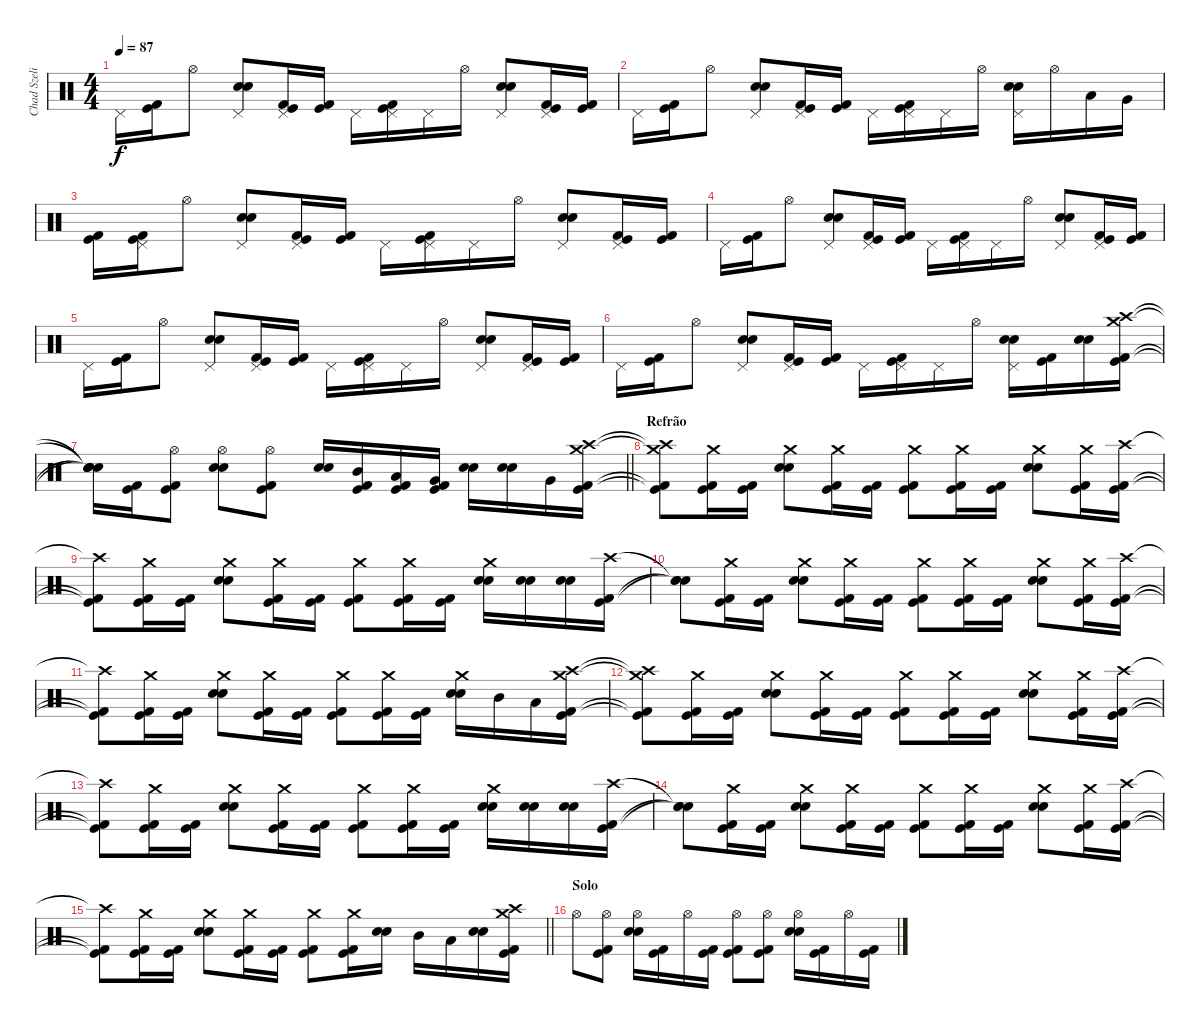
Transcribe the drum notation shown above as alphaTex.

\track ("Chad Szeliga" "Chad Szeli") {instrument percussion}
\staff {score}
\articulation defaults
\ts (4 4)
\tempo 87
\clef neutral
\ks c "Pedal Hi-Hat (hit)".16{dy f}
("Kick (hit) 2" "Kick (hit)").16 "Hi-Hat (open)".8 ("Snare (hit) 2" "Snare (hit) 2" "Pedal Hi-Hat (hit)").8 ("Kick (hit) 2" "Kick (hit)" "Pedal Hi-Hat (hit)").16 ("Kick (hit) 2" "Kick (hit)").16 "Pedal Hi-Hat (hit)".16 ("Kick (hit) 2" "Kick (hit)" "Pedal Hi-Hat (hit)").16 "Pedal Hi-Hat (hit)".16 "Hi-Hat (open)".16 ("Snare (hit) 2" "Snare (hit) 2" "Pedal Hi-Hat (hit)").8 ("Kick (hit) 2" "Kick (hit)" "Pedal Hi-Hat (hit)").16 ("Kick (hit) 2" "Kick (hit)").16 |
"Pedal Hi-Hat (hit)".16 ("Kick (hit) 2" "Kick (hit)").16 "Hi-Hat (open)".8 ("Snare (hit) 2" "Snare (hit) 2" "Pedal Hi-Hat (hit)").8 ("Kick (hit) 2" "Kick (hit)" "Pedal Hi-Hat (hit)").16 ("Kick (hit) 2" "Kick (hit)").16 "Pedal Hi-Hat (hit)".16 ("Kick (hit) 2" "Kick (hit)" "Pedal Hi-Hat (hit)").16 "Pedal Hi-Hat (hit)".16 "Hi-Hat (open)".16 ("Snare (hit) 2" "Snare (hit) 2" "Pedal Hi-Hat (hit)").16 "Hi-Hat (open)".16 "Low Tom (hit)".16 "Very Low Tom (hit)".16 |
("Kick (hit) 2" "Kick (hit)").16 ("Kick (hit) 2" "Kick (hit)" "Pedal Hi-Hat (hit)").16 "Hi-Hat (open)".8 ("Snare (hit) 2" "Snare (hit) 2" "Pedal Hi-Hat (hit)").8 ("Kick (hit) 2" "Kick (hit)" "Pedal Hi-Hat (hit)").16 ("Kick (hit) 2" "Kick (hit)").16 "Pedal Hi-Hat (hit)".16 ("Kick (hit) 2" "Kick (hit)" "Pedal Hi-Hat (hit)").16 "Pedal Hi-Hat (hit)".16 "Hi-Hat (open)".16 ("Snare (hit) 2" "Snare (hit) 2" "Pedal Hi-Hat (hit)").8 ("Kick (hit) 2" "Kick (hit)" "Pedal Hi-Hat (hit)").16 ("Kick (hit) 2" "Kick (hit)").16 |
"Pedal Hi-Hat (hit)".16 ("Kick (hit) 2" "Kick (hit)").16 "Hi-Hat (open)".8 ("Snare (hit) 2" "Snare (hit) 2" "Pedal Hi-Hat (hit)").8 ("Kick (hit) 2" "Kick (hit)" "Pedal Hi-Hat (hit)").16 ("Kick (hit) 2" "Kick (hit)").16 "Pedal Hi-Hat (hit)".16 ("Kick (hit) 2" "Kick (hit)" "Pedal Hi-Hat (hit)").16 "Pedal Hi-Hat (hit)".16 "Hi-Hat (open)".16 ("Snare (hit) 2" "Snare (hit) 2" "Pedal Hi-Hat (hit)").8 ("Kick (hit) 2" "Kick (hit)" "Pedal Hi-Hat (hit)").16 ("Kick (hit) 2" "Kick (hit)").16 |
"Pedal Hi-Hat (hit)".16 ("Kick (hit) 2" "Kick (hit)").16 "Hi-Hat (open)".8 ("Snare (hit) 2" "Snare (hit) 2" "Pedal Hi-Hat (hit)").8 ("Kick (hit) 2" "Kick (hit)" "Pedal Hi-Hat (hit)").16 ("Kick (hit) 2" "Kick (hit)").16 "Pedal Hi-Hat (hit)".16 ("Kick (hit) 2" "Kick (hit)" "Pedal Hi-Hat (hit)").16 "Pedal Hi-Hat (hit)".16 "Hi-Hat (open)".16 ("Snare (hit) 2" "Snare (hit) 2" "Pedal Hi-Hat (hit)").8 ("Kick (hit) 2" "Kick (hit)" "Pedal Hi-Hat (hit)").16 ("Kick (hit) 2" "Kick (hit)").16 |
"Pedal Hi-Hat (hit)".16 ("Kick (hit) 2" "Kick (hit)").16 "Hi-Hat (open)".8 ("Snare (hit) 2" "Snare (hit) 2" "Pedal Hi-Hat (hit)").8 ("Kick (hit) 2" "Kick (hit)" "Pedal Hi-Hat (hit)").16 ("Kick (hit) 2" "Kick (hit)").16 "Pedal Hi-Hat (hit)".16 ("Kick (hit) 2" "Kick (hit)" "Pedal Hi-Hat (hit)").16 "Pedal Hi-Hat (hit)".16 "Hi-Hat (open)".16 ("Snare (hit) 2" "Snare (hit) 2" "Pedal Hi-Hat (hit)").16 ("Kick (hit) 2" "Kick (hit)").16 ("Snare (hit) 2" "Snare (hit) 2").16 ("Crash high (hit)" "Kick (hit) 2" "Kick (hit)" "Crash medium (hit)").16 |
\barLineRight lightlight
("Snare (hit)"{t} "Snare (hit)"{t} "Snare (hit)"{t} "Snare (hit)"{t}).16 ("Kick (hit) 2" "Kick (hit)").16 ("Kick (hit) 2" "Kick (hit)" "Hi-Hat (open)").8 ("Snare (hit) 2" "Snare (hit) 2" "Hi-Hat (open)").8 ("Kick (hit) 2" "Kick (hit)" "Hi-Hat (open)").8 ("Snare (hit) 2" "Snare (hit) 2").16 ("Kick (hit) 2" "Kick (hit)" "Mid Tom (hit)").16 ("Kick (hit) 2" "Kick (hit)" "Low Tom (hit)").16 ("Kick (hit) 2" "Kick (hit)" "Very Low Tom (hit)").16 ("Snare (hit) 2" "Snare (hit) 2").16 ("Snare (hit) 2" "Snare (hit) 2").16 "Very Low Tom (hit)".16 ("Crash high (hit)" "Kick (hit) 2" "Kick (hit)" "Crash medium (hit)").16 |
\section ("" "Refrão")
("Crash high (hit)"{t} "Kick (hit) 2"{t} "Kick (hit)"{t} "Crash medium (hit)"{t}).8 ("Crash medium (hit)" "Kick (hit) 2" "Kick (hit)").16 ("Kick (hit) 2" "Kick (hit)").16 ("Crash medium (hit)" "Snare (hit) 2" "Snare (hit) 2").8 ("Crash medium (hit)" "Kick (hit) 2" "Kick (hit)").16 ("Kick (hit) 2" "Kick (hit)").16 ("Crash medium (hit)" "Kick (hit) 2" "Kick (hit)").8 ("Crash medium (hit)" "Kick (hit) 2" "Kick (hit)").16 ("Kick (hit) 2" "Kick (hit)").16 ("Crash medium (hit)" "Snare (hit) 2" "Snare (hit) 2").8 ("Crash medium (hit)" "Kick (hit) 2" "Kick (hit)").16 ("Crash high (hit)" "Kick (hit) 2" "Kick (hit)").16 |
("Crash high (hit)"{t} "Kick (hit) 2"{t} "Kick (hit)"{t}).8 ("Crash medium (hit)" "Kick (hit) 2" "Kick (hit)").16 ("Kick (hit) 2" "Kick (hit)").16 ("Crash medium (hit)" "Snare (hit) 2" "Snare (hit) 2").8 ("Crash medium (hit)" "Kick (hit) 2" "Kick (hit)").16 ("Kick (hit) 2" "Kick (hit)").16 ("Crash medium (hit)" "Kick (hit) 2" "Kick (hit)").8 ("Crash medium (hit)" "Kick (hit) 2" "Kick (hit)").16 ("Kick (hit) 2" "Kick (hit)").16 ("Crash medium (hit)" "Snare (hit) 2" "Snare (hit) 2").16 ("Snare (hit) 2" "Snare (hit) 2").16 ("Snare (hit) 2" "Snare (hit) 2").16 ("Crash high (hit)" "Kick (hit) 2" "Kick (hit)").16 |
("Snare (hit)"{t} "Snare (hit)"{t} "Snare (hit)"{t}).8 ("Crash medium (hit)" "Kick (hit) 2" "Kick (hit)").16 ("Kick (hit) 2" "Kick (hit)").16 ("Crash medium (hit)" "Snare (hit) 2" "Snare (hit) 2").8 ("Crash medium (hit)" "Kick (hit) 2" "Kick (hit)").16 ("Kick (hit) 2" "Kick (hit)").16 ("Crash medium (hit)" "Kick (hit) 2" "Kick (hit)").8 ("Crash medium (hit)" "Kick (hit) 2" "Kick (hit)").16 ("Kick (hit) 2" "Kick (hit)").16 ("Crash medium (hit)" "Snare (hit) 2" "Snare (hit) 2").8 ("Crash medium (hit)" "Kick (hit) 2" "Kick (hit)").16 ("Crash high (hit)" "Kick (hit) 2" "Kick (hit)").16 |
("Crash high (hit)"{t} "Kick (hit) 2"{t} "Kick (hit)"{t}).8 ("Crash medium (hit)" "Kick (hit) 2" "Kick (hit)").16 ("Kick (hit) 2" "Kick (hit)").16 ("Crash medium (hit)" "Snare (hit) 2" "Snare (hit) 2").8 ("Crash medium (hit)" "Kick (hit) 2" "Kick (hit)").16 ("Kick (hit) 2" "Kick (hit)").16 ("Crash medium (hit)" "Kick (hit) 2" "Kick (hit)").8 ("Crash medium (hit)" "Kick (hit) 2" "Kick (hit)").16 ("Kick (hit) 2" "Kick (hit)").16 ("Crash medium (hit)" "Snare (hit) 2" "Snare (hit) 2").16 "Mid Tom (hit)".16 "Low Tom (hit)".16 ("Crash high (hit)" "Kick (hit) 2" "Kick (hit)" "Crash medium (hit)").16 |
("Crash high (hit)"{t} "Kick (hit) 2"{t} "Kick (hit)"{t} "Crash medium (hit)"{t}).8 ("Crash medium (hit)" "Kick (hit) 2" "Kick (hit)").16 ("Kick (hit) 2" "Kick (hit)").16 ("Crash medium (hit)" "Snare (hit) 2" "Snare (hit) 2").8 ("Crash medium (hit)" "Kick (hit) 2" "Kick (hit)").16 ("Kick (hit) 2" "Kick (hit)").16 ("Crash medium (hit)" "Kick (hit) 2" "Kick (hit)").8 ("Crash medium (hit)" "Kick (hit) 2" "Kick (hit)").16 ("Kick (hit) 2" "Kick (hit)").16 ("Crash medium (hit)" "Snare (hit) 2" "Snare (hit) 2").8 ("Crash medium (hit)" "Kick (hit) 2" "Kick (hit)").16 ("Crash high (hit)" "Kick (hit) 2" "Kick (hit)").16 |
("Crash high (hit)"{t} "Kick (hit) 2"{t} "Kick (hit)"{t}).8 ("Crash medium (hit)" "Kick (hit) 2" "Kick (hit)").16 ("Kick (hit) 2" "Kick (hit)").16 ("Crash medium (hit)" "Snare (hit) 2" "Snare (hit) 2").8 ("Crash medium (hit)" "Kick (hit) 2" "Kick (hit)").16 ("Kick (hit) 2" "Kick (hit)").16 ("Crash medium (hit)" "Kick (hit) 2" "Kick (hit)").8 ("Crash medium (hit)" "Kick (hit) 2" "Kick (hit)").16 ("Kick (hit) 2" "Kick (hit)").16 ("Crash medium (hit)" "Snare (hit) 2" "Snare (hit) 2").16 ("Snare (hit) 2" "Snare (hit) 2").16 ("Snare (hit) 2" "Snare (hit) 2").16 ("Crash high (hit)" "Kick (hit) 2" "Kick (hit)").16 |
("Snare (hit)"{t} "Snare (hit)"{t} "Snare (hit)"{t}).8 ("Crash medium (hit)" "Kick (hit) 2" "Kick (hit)").16 ("Kick (hit) 2" "Kick (hit)").16 ("Crash medium (hit)" "Snare (hit) 2" "Snare (hit) 2").8 ("Crash medium (hit)" "Kick (hit) 2" "Kick (hit)").16 ("Kick (hit) 2" "Kick (hit)").16 ("Crash medium (hit)" "Kick (hit) 2" "Kick (hit)").8 ("Crash medium (hit)" "Kick (hit) 2" "Kick (hit)").16 ("Kick (hit) 2" "Kick (hit)").16 ("Crash medium (hit)" "Snare (hit) 2" "Snare (hit) 2").8 ("Crash medium (hit)" "Kick (hit) 2" "Kick (hit)").16 ("Crash high (hit)" "Kick (hit) 2" "Kick (hit)").16 |
\barLineRight lightlight
("Crash high (hit)"{t} "Kick (hit) 2"{t} "Kick (hit)"{t}).8 ("Crash medium (hit)" "Kick (hit) 2" "Kick (hit)").16 ("Kick (hit) 2" "Kick (hit)").16 ("Crash medium (hit)" "Snare (hit) 2" "Snare (hit) 2").8 ("Crash medium (hit)" "Kick (hit) 2" "Kick (hit)").16 ("Kick (hit) 2" "Kick (hit)").16 ("Crash medium (hit)" "Kick (hit) 2" "Kick (hit)").8 ("Crash medium (hit)" "Kick (hit) 2" "Kick (hit)").16 ("Snare (hit) 2" "Snare (hit) 2").16 "Mid Tom (hit)".16 "Low Tom (hit)".16 ("Snare (hit) 2" "Snare (hit) 2").16 ("Crash high (hit)" "Kick (hit) 2" "Kick (hit)" "Crash medium (hit)").16 |
\section ("" "Solo")
"Hi-Hat (open)".8 ("Kick (hit) 2" "Kick (hit)" "Hi-Hat (open)").8 ("Snare (hit) 2" "Snare (hit) 2" "Hi-Hat (open)").16 ("Kick (hit) 2" "Kick (hit)").16 "Hi-Hat (open)".16 ("Kick (hit) 2" "Kick (hit)").16 ("Kick (hit) 2" "Kick (hit)" "Hi-Hat (open)").8 ("Kick (hit) 2" "Kick (hit)" "Hi-Hat (open)").8 ("Snare (hit) 2" "Snare (hit) 2" "Hi-Hat (open)").16 ("Kick (hit) 2" "Kick (hit)").16 "Hi-Hat (open)".16 ("Kick (hit) 2" "Kick (hit)").16
